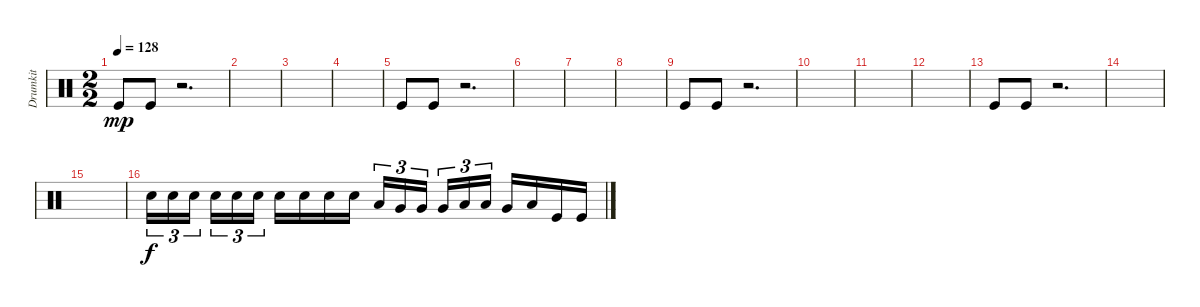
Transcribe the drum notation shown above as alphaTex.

\track ("Drumkit" "Drumkit") {instrument percussion}
\staff {score}
\articulation defaults
\ts (2 2)
\tempo 128
\clef neutral
\ks c "Kick (hit)".8{dy mp} "Kick (hit)".8
r.2{d} |
|
|
|
"Kick (hit)".8 "Kick (hit)".8 r.2{d} |
|
|
|
"Kick (hit)".8 "Kick (hit)".8 r.2{d} |
|
|
|
"Kick (hit)".8 "Kick (hit)".8 r.2{d} |
|
|
"Snare (hit) 2".16{tu (3 2) dy f} "Snare (hit) 2".16{tu (3 2)} "Snare (hit) 2".16{tu (3 2)} "Snare (hit) 2".16{tu (3 2)} "Snare (hit) 2".16{tu (3 2)} "Snare (hit) 2".16{tu (3 2)} "Snare (hit) 2".16 "Snare (hit) 2".16 "Snare (hit) 2".16 "Snare (hit) 2".16 "Low Tom (hit)".16{tu (3 2)} "Very Low Tom (hit)".16{tu (3 2)} "Very Low Tom (hit)".16{tu (3 2)} "Very Low Tom (hit)".16{tu (3 2)} "Low Floor Tom (hit)".16{tu (3 2)} "Low Floor Tom (hit)".16{tu (3 2)} "Very Low Tom (hit)".16 "Low Floor Tom (hit)".16 "Kick (hit)".16 "Kick (hit)".16
